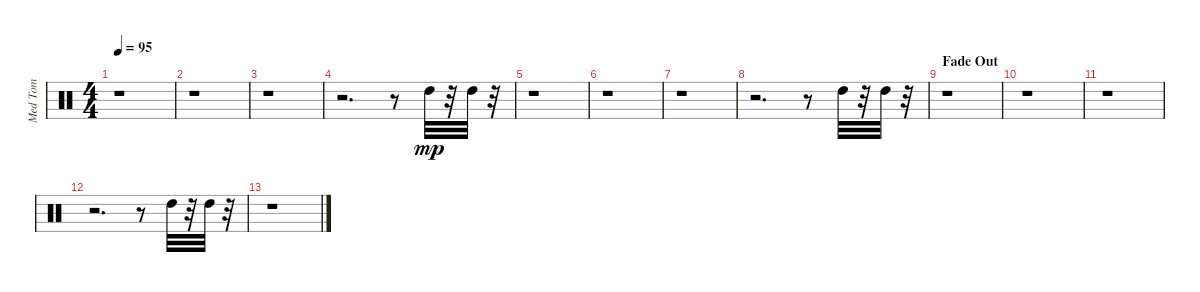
\track ("Med Tom" "Med Tom") {instrument percussion}
\staff {score}
\articulation defaults
\ts (4 4)
\tempo 95
\clef neutral
\ks c
r.1{dy mp} |
r.1 |
r.1 |
r.2{d} r.8 "High Tom (hit)".32 r.32 "High Tom (hit)".32 r.32 |
r.1 |
r.1 |
r.1 |
r.2{d} r.8 "High Tom (hit)".32 r.32 "High Tom (hit)".32 r.32 |
\section ("" "Fade Out")
r.1{volume 0} |
r.1 |
r.1 |
r.2{d} r.8 "High Tom (hit)".32 r.32 "High Tom (hit)".32 r.32 |
r.1
